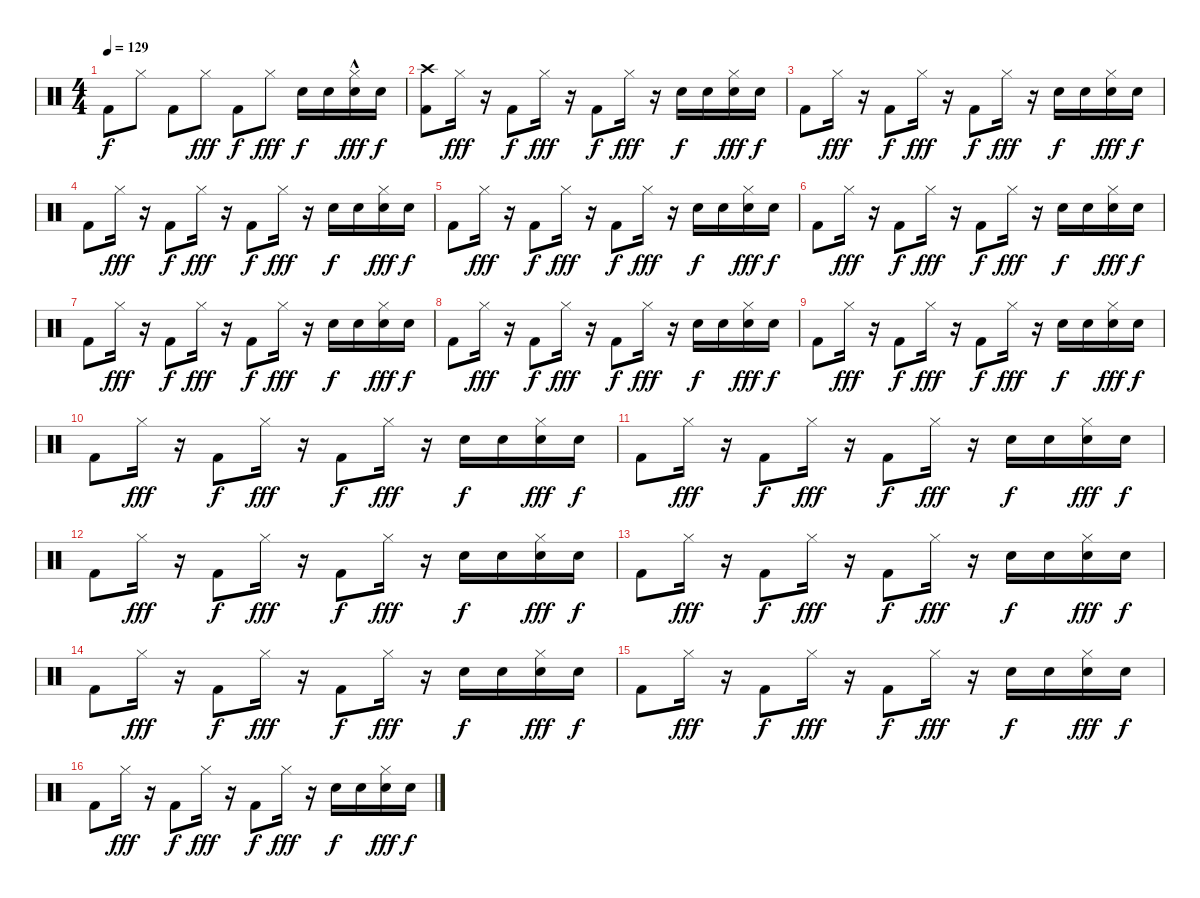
\track "" {instrument percussion}
\staff {score}
\articulation defaults
\ts (4 4)
\tempo 129
\clef neutral
\ks c "Kick (hit) 2".8{dy f} "Hi-Hat (closed)".8 "Kick (hit) 2".8 "Hi-Hat (closed)".8{dy fff} "Kick (hit) 2".8{dy f} "Hi-Hat (closed)".8{dy fff} "Snare (hit) 2".16{dy f} "Snare (hit) 2".16
("Snare (hit) 2" "Hi-Hat (closed)"{hac}).16{dy fff} "Snare (hit) 2".16{dy f} |
("Kick (hit) 2" "Crash high (hit)").8 "Hi-Hat (closed)".16{dy fff} r.16 "Kick (hit) 2".8{dy f} "Hi-Hat (closed)".16{dy fff} r.16 "Kick (hit) 2".8{dy f} "Hi-Hat (closed)".16{dy fff} r.16 "Snare (hit) 2".16{dy f} "Snare (hit) 2".16 ("Snare (hit) 2" "Hi-Hat (closed)").16{dy fff} "Snare (hit) 2".16{dy f} |
"Kick (hit) 2".8 "Hi-Hat (closed)".16{dy fff} r.16 "Kick (hit) 2".8{dy f} "Hi-Hat (closed)".16{dy fff} r.16 "Kick (hit) 2".8{dy f} "Hi-Hat (closed)".16{dy fff} r.16 "Snare (hit) 2".16{dy f} "Snare (hit) 2".16 ("Snare (hit) 2" "Hi-Hat (closed)").16{dy fff} "Snare (hit) 2".16{dy f} |
"Kick (hit) 2".8 "Hi-Hat (closed)".16{dy fff} r.16 "Kick (hit) 2".8{dy f} "Hi-Hat (closed)".16{dy fff} r.16 "Kick (hit) 2".8{dy f} "Hi-Hat (closed)".16{dy fff} r.16 "Snare (hit) 2".16{dy f} "Snare (hit) 2".16 ("Snare (hit) 2" "Hi-Hat (closed)").16{dy fff} "Snare (hit) 2".16{dy f} |
"Kick (hit) 2".8 "Hi-Hat (closed)".16{dy fff} r.16 "Kick (hit) 2".8{dy f} "Hi-Hat (closed)".16{dy fff} r.16 "Kick (hit) 2".8{dy f} "Hi-Hat (closed)".16{dy fff} r.16 "Snare (hit) 2".16{dy f} "Snare (hit) 2".16 ("Snare (hit) 2" "Hi-Hat (closed)").16{dy fff} "Snare (hit) 2".16{dy f} |
"Kick (hit) 2".8 "Hi-Hat (closed)".16{dy fff} r.16 "Kick (hit) 2".8{dy f} "Hi-Hat (closed)".16{dy fff} r.16 "Kick (hit) 2".8{dy f} "Hi-Hat (closed)".16{dy fff} r.16 "Snare (hit) 2".16{dy f} "Snare (hit) 2".16 ("Snare (hit) 2" "Hi-Hat (closed)").16{dy fff} "Snare (hit) 2".16{dy f} |
"Kick (hit) 2".8 "Hi-Hat (closed)".16{dy fff} r.16 "Kick (hit) 2".8{dy f} "Hi-Hat (closed)".16{dy fff} r.16 "Kick (hit) 2".8{dy f} "Hi-Hat (closed)".16{dy fff} r.16 "Snare (hit) 2".16{dy f} "Snare (hit) 2".16 ("Snare (hit) 2" "Hi-Hat (closed)").16{dy fff} "Snare (hit) 2".16{dy f} |
"Kick (hit) 2".8 "Hi-Hat (closed)".16{dy fff} r.16 "Kick (hit) 2".8{dy f} "Hi-Hat (closed)".16{dy fff} r.16 "Kick (hit) 2".8{dy f} "Hi-Hat (closed)".16{dy fff} r.16 "Snare (hit) 2".16{dy f} "Snare (hit) 2".16 ("Snare (hit) 2" "Hi-Hat (closed)").16{dy fff} "Snare (hit) 2".16{dy f} |
"Kick (hit) 2".8 "Hi-Hat (closed)".16{dy fff} r.16 "Kick (hit) 2".8{dy f} "Hi-Hat (closed)".16{dy fff} r.16 "Kick (hit) 2".8{dy f} "Hi-Hat (closed)".16{dy fff} r.16 "Snare (hit) 2".16{dy f} "Snare (hit) 2".16 ("Snare (hit) 2" "Hi-Hat (closed)").16{dy fff} "Snare (hit) 2".16{dy f} |
"Kick (hit) 2".8 "Hi-Hat (closed)".16{dy fff} r.16 "Kick (hit) 2".8{dy f} "Hi-Hat (closed)".16{dy fff} r.16 "Kick (hit) 2".8{dy f} "Hi-Hat (closed)".16{dy fff} r.16 "Snare (hit) 2".16{dy f} "Snare (hit) 2".16 ("Snare (hit) 2" "Hi-Hat (closed)").16{dy fff} "Snare (hit) 2".16{dy f} |
"Kick (hit) 2".8 "Hi-Hat (closed)".16{dy fff} r.16 "Kick (hit) 2".8{dy f} "Hi-Hat (closed)".16{dy fff} r.16 "Kick (hit) 2".8{dy f} "Hi-Hat (closed)".16{dy fff} r.16 "Snare (hit) 2".16{dy f} "Snare (hit) 2".16 ("Snare (hit) 2" "Hi-Hat (closed)").16{dy fff} "Snare (hit) 2".16{dy f} |
"Kick (hit) 2".8 "Hi-Hat (closed)".16{dy fff} r.16 "Kick (hit) 2".8{dy f} "Hi-Hat (closed)".16{dy fff} r.16 "Kick (hit) 2".8{dy f} "Hi-Hat (closed)".16{dy fff} r.16 "Snare (hit) 2".16{dy f} "Snare (hit) 2".16 ("Snare (hit) 2" "Hi-Hat (closed)").16{dy fff} "Snare (hit) 2".16{dy f} |
"Kick (hit) 2".8 "Hi-Hat (closed)".16{dy fff} r.16 "Kick (hit) 2".8{dy f} "Hi-Hat (closed)".16{dy fff} r.16 "Kick (hit) 2".8{dy f} "Hi-Hat (closed)".16{dy fff} r.16 "Snare (hit) 2".16{dy f} "Snare (hit) 2".16 ("Snare (hit) 2" "Hi-Hat (closed)").16{dy fff} "Snare (hit) 2".16{dy f} |
"Kick (hit) 2".8 "Hi-Hat (closed)".16{dy fff} r.16 "Kick (hit) 2".8{dy f} "Hi-Hat (closed)".16{dy fff} r.16 "Kick (hit) 2".8{dy f} "Hi-Hat (closed)".16{dy fff} r.16 "Snare (hit) 2".16{dy f} "Snare (hit) 2".16 ("Snare (hit) 2" "Hi-Hat (closed)").16{dy fff} "Snare (hit) 2".16{dy f} |
"Kick (hit) 2".8 "Hi-Hat (closed)".16{dy fff} r.16 "Kick (hit) 2".8{dy f} "Hi-Hat (closed)".16{dy fff} r.16 "Kick (hit) 2".8{dy f} "Hi-Hat (closed)".16{dy fff} r.16 "Snare (hit) 2".16{dy f} "Snare (hit) 2".16 ("Snare (hit) 2" "Hi-Hat (closed)").16{dy fff} "Snare (hit) 2".16{dy f} |
"Kick (hit) 2".8 "Hi-Hat (closed)".16{dy fff} r.16 "Kick (hit) 2".8{dy f} "Hi-Hat (closed)".16{dy fff} r.16 "Kick (hit) 2".8{dy f} "Hi-Hat (closed)".16{dy fff} r.16 "Snare (hit) 2".16{dy f} "Snare (hit) 2".16 ("Snare (hit) 2" "Hi-Hat (closed)").16{dy fff} "Snare (hit) 2".16{dy f}
